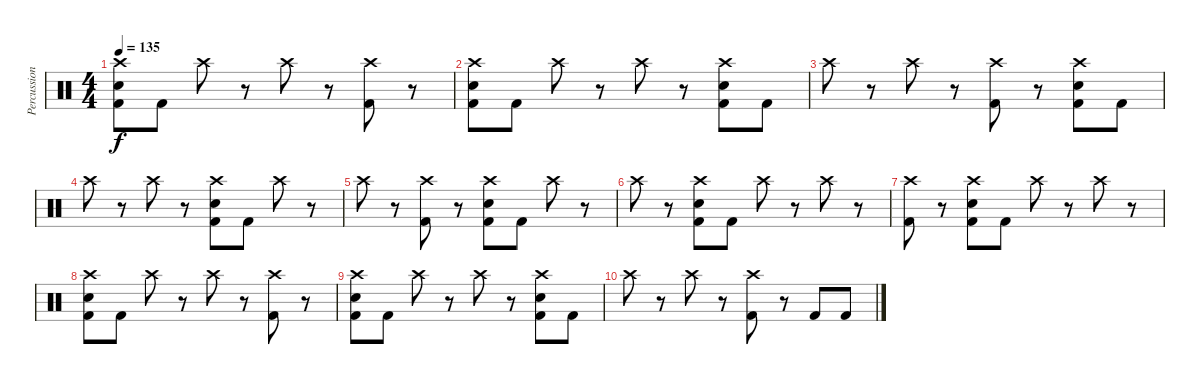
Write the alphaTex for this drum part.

\track ("Percussion" "Percussion") {instrument percussion}
\staff {score}
\articulation defaults
\ts (4 4)
\tempo 135
\clef neutral
\ks c
("Crash high (hit)" "Snare (hit) 2" "Kick (hit) 2").8{dy f} "Kick (hit) 2".8 "Crash high (hit)".8 r.8 "Crash high (hit)".8 r.8 ("Crash high (hit)" "Kick (hit) 2").8 r.8 |
("Crash high (hit)" "Snare (hit) 2" "Kick (hit) 2").8 "Kick (hit) 2".8 "Crash high (hit)".8 r.8 "Crash high (hit)".8 r.8 ("Crash high (hit)" "Snare (hit) 2" "Kick (hit) 2").8 "Kick (hit) 2".8 |
"Crash high (hit)".8 r.8 "Crash high (hit)".8 r.8 ("Crash high (hit)" "Kick (hit) 2").8 r.8 ("Crash high (hit)" "Snare (hit) 2" "Kick (hit) 2").8 "Kick (hit) 2".8 |
"Crash high (hit)".8 r.8 "Crash high (hit)".8 r.8 ("Crash high (hit)" "Snare (hit) 2" "Kick (hit) 2").8 "Kick (hit) 2".8 "Crash high (hit)".8 r.8 |
"Crash high (hit)".8 r.8 ("Crash high (hit)" "Kick (hit) 2").8 r.8 ("Crash high (hit)" "Snare (hit) 2" "Kick (hit) 2").8 "Kick (hit) 2".8 "Crash high (hit)".8 r.8 |
"Crash high (hit)".8 r.8 ("Crash high (hit)" "Snare (hit) 2" "Kick (hit) 2").8 "Kick (hit) 2".8 "Crash high (hit)".8 r.8 "Crash high (hit)".8 r.8 |
("Crash high (hit)" "Kick (hit) 2").8 r.8 ("Crash high (hit)" "Snare (hit) 2" "Kick (hit) 2").8 "Kick (hit) 2".8 "Crash high (hit)".8 r.8 "Crash high (hit)".8 r.8 |
("Crash high (hit)" "Snare (hit) 2" "Kick (hit) 2").8 "Kick (hit) 2".8 "Crash high (hit)".8 r.8 "Crash high (hit)".8 r.8 ("Crash high (hit)" "Kick (hit) 2").8 r.8 |
("Crash high (hit)" "Snare (hit) 2" "Kick (hit) 2").8 "Kick (hit) 2".8 "Crash high (hit)".8 r.8 "Crash high (hit)".8 r.8 ("Crash high (hit)" "Snare (hit) 2" "Kick (hit) 2").8 "Kick (hit) 2".8 |
"Crash high (hit)".8 r.8 "Crash high (hit)".8 r.8 ("Crash high (hit)" "Kick (hit) 2").8 r.8 "Kick (hit) 2".8 "Kick (hit) 2".8
